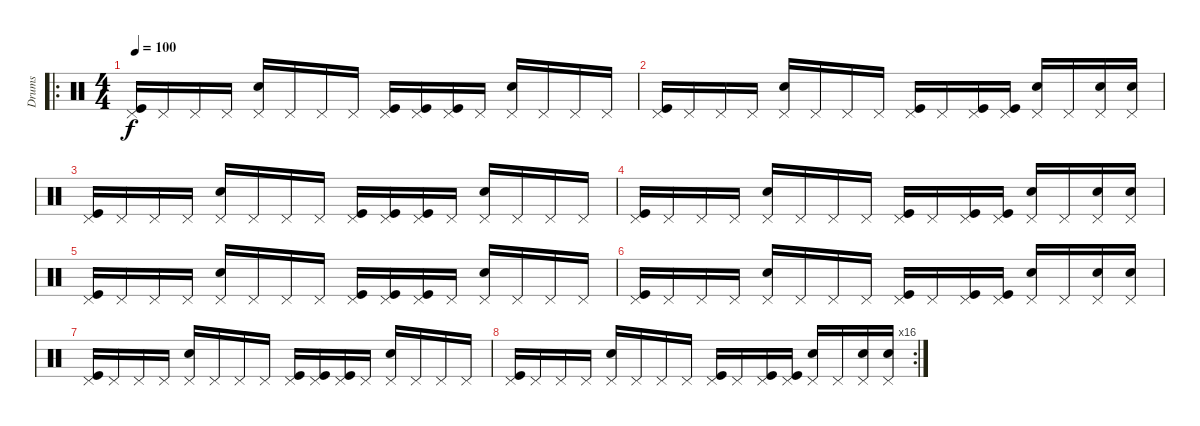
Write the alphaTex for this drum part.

\track ("Drums" "Drums") {instrument percussion}
\staff {score}
\articulation defaults
\ro
\ts (4 4)
\tempo 100
\clef neutral
\ks c
("Pedal Hi-Hat (hit)" "Kick (hit)").16{dy f} "Pedal Hi-Hat (hit)".16 "Pedal Hi-Hat (hit)".16 "Pedal Hi-Hat (hit)".16 ("Pedal Hi-Hat (hit)" "Snare (hit) 2").16 "Pedal Hi-Hat (hit)".16 "Pedal Hi-Hat (hit)".16 "Pedal Hi-Hat (hit)".16 ("Pedal Hi-Hat (hit)" "Kick (hit)").16 ("Pedal Hi-Hat (hit)" "Kick (hit)").16 ("Pedal Hi-Hat (hit)" "Kick (hit)").16 "Pedal Hi-Hat (hit)".16 ("Pedal Hi-Hat (hit)" "Snare (hit) 2").16 "Pedal Hi-Hat (hit)".16 "Pedal Hi-Hat (hit)".16 "Pedal Hi-Hat (hit)".16 |
("Pedal Hi-Hat (hit)" "Kick (hit)").16 "Pedal Hi-Hat (hit)".16 "Pedal Hi-Hat (hit)".16 "Pedal Hi-Hat (hit)".16 ("Pedal Hi-Hat (hit)" "Snare (hit) 2").16 "Pedal Hi-Hat (hit)".16 "Pedal Hi-Hat (hit)".16 "Pedal Hi-Hat (hit)".16 ("Pedal Hi-Hat (hit)" "Kick (hit)").16 "Pedal Hi-Hat (hit)".16 ("Pedal Hi-Hat (hit)" "Kick (hit)").16 ("Pedal Hi-Hat (hit)" "Kick (hit)").16 ("Pedal Hi-Hat (hit)" "Snare (hit) 2").16 "Pedal Hi-Hat (hit)".16 ("Pedal Hi-Hat (hit)" "Snare (hit) 2").16 ("Pedal Hi-Hat (hit)" "Snare (hit) 2").16 |
("Pedal Hi-Hat (hit)" "Kick (hit)").16 "Pedal Hi-Hat (hit)".16 "Pedal Hi-Hat (hit)".16 "Pedal Hi-Hat (hit)".16 ("Pedal Hi-Hat (hit)" "Snare (hit) 2").16 "Pedal Hi-Hat (hit)".16 "Pedal Hi-Hat (hit)".16 "Pedal Hi-Hat (hit)".16 ("Pedal Hi-Hat (hit)" "Kick (hit)").16 ("Pedal Hi-Hat (hit)" "Kick (hit)").16 ("Pedal Hi-Hat (hit)" "Kick (hit)").16 "Pedal Hi-Hat (hit)".16 ("Pedal Hi-Hat (hit)" "Snare (hit) 2").16 "Pedal Hi-Hat (hit)".16 "Pedal Hi-Hat (hit)".16 "Pedal Hi-Hat (hit)".16 |
("Pedal Hi-Hat (hit)" "Kick (hit)").16 "Pedal Hi-Hat (hit)".16 "Pedal Hi-Hat (hit)".16 "Pedal Hi-Hat (hit)".16 ("Pedal Hi-Hat (hit)" "Snare (hit) 2").16 "Pedal Hi-Hat (hit)".16 "Pedal Hi-Hat (hit)".16 "Pedal Hi-Hat (hit)".16 ("Pedal Hi-Hat (hit)" "Kick (hit)").16 "Pedal Hi-Hat (hit)".16 ("Pedal Hi-Hat (hit)" "Kick (hit)").16 ("Pedal Hi-Hat (hit)" "Kick (hit)").16 ("Pedal Hi-Hat (hit)" "Snare (hit) 2").16 "Pedal Hi-Hat (hit)".16 ("Pedal Hi-Hat (hit)" "Snare (hit) 2").16 ("Pedal Hi-Hat (hit)" "Snare (hit) 2").16 |
("Pedal Hi-Hat (hit)" "Kick (hit)").16 "Pedal Hi-Hat (hit)".16 "Pedal Hi-Hat (hit)".16 "Pedal Hi-Hat (hit)".16 ("Pedal Hi-Hat (hit)" "Snare (hit) 2").16 "Pedal Hi-Hat (hit)".16 "Pedal Hi-Hat (hit)".16 "Pedal Hi-Hat (hit)".16 ("Pedal Hi-Hat (hit)" "Kick (hit)").16 ("Pedal Hi-Hat (hit)" "Kick (hit)").16 ("Pedal Hi-Hat (hit)" "Kick (hit)").16 "Pedal Hi-Hat (hit)".16 ("Pedal Hi-Hat (hit)" "Snare (hit) 2").16 "Pedal Hi-Hat (hit)".16 "Pedal Hi-Hat (hit)".16 "Pedal Hi-Hat (hit)".16 |
("Pedal Hi-Hat (hit)" "Kick (hit)").16 "Pedal Hi-Hat (hit)".16 "Pedal Hi-Hat (hit)".16 "Pedal Hi-Hat (hit)".16 ("Pedal Hi-Hat (hit)" "Snare (hit) 2").16 "Pedal Hi-Hat (hit)".16 "Pedal Hi-Hat (hit)".16 "Pedal Hi-Hat (hit)".16 ("Pedal Hi-Hat (hit)" "Kick (hit)").16 "Pedal Hi-Hat (hit)".16 ("Pedal Hi-Hat (hit)" "Kick (hit)").16 ("Pedal Hi-Hat (hit)" "Kick (hit)").16 ("Pedal Hi-Hat (hit)" "Snare (hit) 2").16 "Pedal Hi-Hat (hit)".16 ("Pedal Hi-Hat (hit)" "Snare (hit) 2").16 ("Pedal Hi-Hat (hit)" "Snare (hit) 2").16 |
("Pedal Hi-Hat (hit)" "Kick (hit)").16 "Pedal Hi-Hat (hit)".16 "Pedal Hi-Hat (hit)".16 "Pedal Hi-Hat (hit)".16 ("Pedal Hi-Hat (hit)" "Snare (hit) 2").16 "Pedal Hi-Hat (hit)".16 "Pedal Hi-Hat (hit)".16 "Pedal Hi-Hat (hit)".16 ("Pedal Hi-Hat (hit)" "Kick (hit)").16 ("Pedal Hi-Hat (hit)" "Kick (hit)").16 ("Pedal Hi-Hat (hit)" "Kick (hit)").16 "Pedal Hi-Hat (hit)".16 ("Pedal Hi-Hat (hit)" "Snare (hit) 2").16 "Pedal Hi-Hat (hit)".16 "Pedal Hi-Hat (hit)".16 "Pedal Hi-Hat (hit)".16 |
\rc 16
("Pedal Hi-Hat (hit)" "Kick (hit)").16 "Pedal Hi-Hat (hit)".16 "Pedal Hi-Hat (hit)".16 "Pedal Hi-Hat (hit)".16 ("Pedal Hi-Hat (hit)" "Snare (hit) 2").16 "Pedal Hi-Hat (hit)".16 "Pedal Hi-Hat (hit)".16 "Pedal Hi-Hat (hit)".16 ("Pedal Hi-Hat (hit)" "Kick (hit)").16 "Pedal Hi-Hat (hit)".16 ("Pedal Hi-Hat (hit)" "Kick (hit)").16 ("Pedal Hi-Hat (hit)" "Kick (hit)").16 ("Pedal Hi-Hat (hit)" "Snare (hit) 2").16 "Pedal Hi-Hat (hit)".16 ("Pedal Hi-Hat (hit)" "Snare (hit) 2").16 ("Pedal Hi-Hat (hit)" "Snare (hit) 2").16
